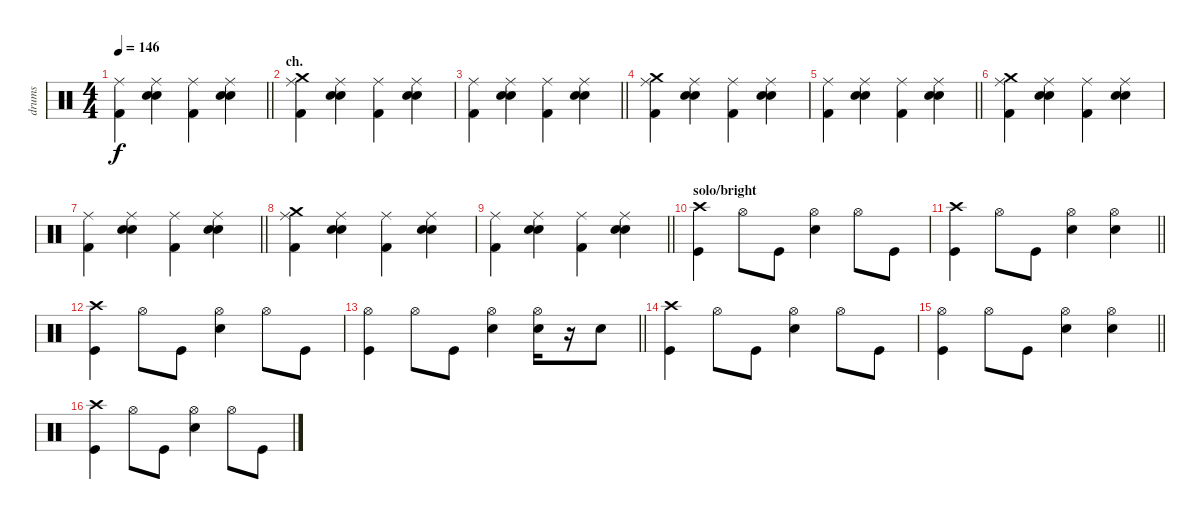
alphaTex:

\track ("drums " "drums ") {instrument percussion}
\staff {score}
\articulation defaults
\ts (4 4)
\tempo 146
\clef neutral
\barLineRight lightlight
\ks c
("Ride (middle)" "Kick (hit) 2").4{dy f} ("Ride (middle)" "Electric Snare (hit)" "Snare (hit) 2").4 ("Ride (middle)" "Kick (hit) 2").4 ("Ride (middle)" "Electric Snare (hit)" "Snare (hit) 2").4 |
\section ("" "ch.")
("Crash medium (hit)" "Ride (middle)" "Kick (hit) 2").4 ("Ride (middle)" "Electric Snare (hit)" "Snare (hit) 2").4 ("Ride (middle)" "Kick (hit) 2").4 ("Ride (middle)" "Electric Snare (hit)" "Snare (hit) 2").4 |
\barLineRight lightlight
("Ride (middle)" "Kick (hit) 2").4 ("Ride (middle)" "Electric Snare (hit)" "Snare (hit) 2").4 ("Ride (middle)" "Kick (hit) 2").4 ("Ride (middle)" "Electric Snare (hit)" "Snare (hit) 2").4 |
("Crash medium (hit)" "Ride (middle)" "Kick (hit) 2").4 ("Ride (middle)" "Electric Snare (hit)" "Snare (hit) 2").4 ("Ride (middle)" "Kick (hit) 2").4 ("Ride (middle)" "Electric Snare (hit)" "Snare (hit) 2").4 |
\barLineRight lightlight
("Ride (middle)" "Kick (hit) 2").4 ("Ride (middle)" "Electric Snare (hit)" "Snare (hit) 2").4 ("Ride (middle)" "Kick (hit) 2").4 ("Ride (middle)" "Electric Snare (hit)" "Snare (hit) 2").4 |
("Crash medium (hit)" "Ride (middle)" "Kick (hit) 2").4 ("Ride (middle)" "Electric Snare (hit)" "Snare (hit) 2").4 ("Ride (middle)" "Kick (hit) 2").4 ("Ride (middle)" "Electric Snare (hit)" "Snare (hit) 2").4 |
\barLineRight lightlight
("Ride (middle)" "Kick (hit) 2").4 ("Ride (middle)" "Electric Snare (hit)" "Snare (hit) 2").4 ("Ride (middle)" "Kick (hit) 2").4 ("Ride (middle)" "Electric Snare (hit)" "Snare (hit) 2").4 |
("Crash medium (hit)" "Ride (middle)" "Kick (hit) 2").4 ("Ride (middle)" "Electric Snare (hit)" "Snare (hit) 2").4 ("Ride (middle)" "Kick (hit) 2").4 ("Ride (middle)" "Electric Snare (hit)" "Snare (hit) 2").4 |
\barLineRight lightlight
("Ride (middle)" "Kick (hit) 2").4 ("Ride (middle)" "Electric Snare (hit)" "Snare (hit) 2").4 ("Ride (middle)" "Kick (hit) 2").4 ("Ride (middle)" "Electric Snare (hit)" "Snare (hit) 2").4 |
\section ("" "solo/bright")
("Crash high (hit)" "Kick (hit)").4 "Hi-Hat (open)".8 "Kick (hit)".8 ("Hi-Hat (open)" "Snare (hit) 2").4 "Hi-Hat (open)".8 "Kick (hit)".8 |
\barLineRight lightlight
("Crash high (hit)" "Kick (hit)").4 "Hi-Hat (open)".8 "Kick (hit)".8 ("Hi-Hat (open)" "Snare (hit) 2").4 ("Hi-Hat (open)" "Snare (hit) 2").4 |
("Crash high (hit)" "Kick (hit)").4 "Hi-Hat (open)".8 "Kick (hit)".8 ("Hi-Hat (open)" "Snare (hit) 2").4 "Hi-Hat (open)".8 "Kick (hit)".8 |
\barLineRight lightlight
("Hi-Hat (open)" "Kick (hit)").4 "Hi-Hat (open)".8 "Kick (hit)".8 ("Hi-Hat (open)" "Snare (hit) 2").4 ("Hi-Hat (open)" "Snare (hit) 2").16 r.16 "Snare (hit) 2".8 |
("Crash high (hit)" "Kick (hit)").4 "Hi-Hat (open)".8 "Kick (hit)".8 ("Hi-Hat (open)" "Snare (hit) 2").4 "Hi-Hat (open)".8 "Kick (hit)".8 |
\barLineRight lightlight
("Hi-Hat (open)" "Kick (hit)").4 "Hi-Hat (open)".8 "Kick (hit)".8 ("Hi-Hat (open)" "Snare (hit) 2").4 ("Hi-Hat (open)" "Snare (hit) 2").4 |
("Crash high (hit)" "Kick (hit)").4 "Hi-Hat (open)".8 "Kick (hit)".8 ("Hi-Hat (open)" "Snare (hit) 2").4 "Hi-Hat (open)".8 "Kick (hit)".8
